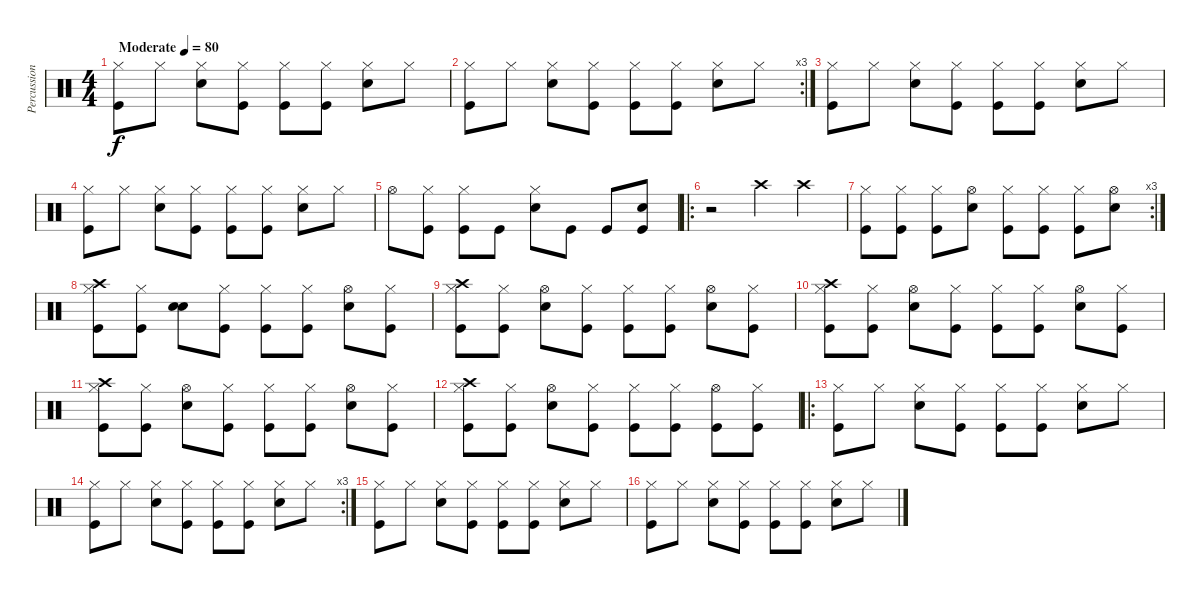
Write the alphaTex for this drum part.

\track ("Percussion" "Percussion") {instrument percussion}
\staff {score}
\articulation defaults
\ts (4 4)
\tempo (80 "Moderate")
\clef neutral
\ks c
("Kick (hit)" "Hi-Hat (closed)").8{dy f} "Hi-Hat (closed)".8 ("Snare (hit) 2" "Hi-Hat (closed)").8 ("Kick (hit)" "Hi-Hat (closed)").8 ("Kick (hit)" "Hi-Hat (closed)").8 ("Kick (hit)" "Hi-Hat (closed)").8 ("Snare (hit) 2" "Hi-Hat (closed)").8 "Hi-Hat (closed)".8 |
\rc 3
("Kick (hit)" "Hi-Hat (closed)").8 "Hi-Hat (closed)".8 ("Snare (hit) 2" "Hi-Hat (closed)").8 ("Kick (hit)" "Hi-Hat (closed)").8 ("Kick (hit)" "Hi-Hat (closed)").8 ("Kick (hit)" "Hi-Hat (closed)").8 ("Snare (hit) 2" "Hi-Hat (closed)").8 "Hi-Hat (closed)".8 |
("Kick (hit)" "Hi-Hat (closed)").8 "Hi-Hat (closed)".8 ("Snare (hit) 2" "Hi-Hat (closed)").8 ("Kick (hit)" "Hi-Hat (closed)").8 ("Kick (hit)" "Hi-Hat (closed)").8 ("Kick (hit)" "Hi-Hat (closed)").8 ("Snare (hit) 2" "Hi-Hat (closed)").8 "Hi-Hat (closed)".8 |
("Kick (hit)" "Hi-Hat (closed)").8 "Hi-Hat (closed)".8 ("Snare (hit) 2" "Hi-Hat (closed)").8 ("Kick (hit)" "Hi-Hat (closed)").8 ("Kick (hit)" "Hi-Hat (closed)").8 ("Kick (hit)" "Hi-Hat (closed)").8 ("Snare (hit) 2" "Hi-Hat (closed)").8 "Hi-Hat (closed)".8 |
"Hi-Hat (open)".8 ("Hi-Hat (closed)" "Kick (hit)").8 ("Hi-Hat (closed)" "Kick (hit)").8 "Kick (hit)".8 ("Hi-Hat (closed)" "Snare (hit) 2").8 "Kick (hit)".8 "Kick (hit)".8 ("Snare (hit) 2" "Kick (hit)").8 |
\ro
r.2 "Crash high (hit)".4 "Crash high (hit)".4 |
\rc 3
("Hi-Hat (closed)" "Kick (hit)").8 ("Hi-Hat (closed)" "Kick (hit)").8 ("Hi-Hat (closed)" "Kick (hit)").8 ("Hi-Hat (open)" "Snare (hit) 2").8 ("Hi-Hat (closed)" "Kick (hit)").8 ("Hi-Hat (closed)" "Kick (hit)").8 ("Hi-Hat (closed)" "Kick (hit)").8 ("Hi-Hat (open)" "Snare (hit) 2").8 |
("Crash high (hit)" "Hi-Hat (closed)" "Kick (hit)").8 ("Hi-Hat (closed)" "Kick (hit)").8 ("Snare (hit)" "Snare (hit) 2").8 ("Hi-Hat (closed)" "Kick (hit)").8 ("Hi-Hat (closed)" "Kick (hit)").8 ("Hi-Hat (closed)" "Kick (hit)").8 ("Hi-Hat (open)" "Snare (hit) 2").8 ("Hi-Hat (closed)" "Kick (hit)").8 |
("Crash high (hit)" "Hi-Hat (closed)" "Kick (hit)").8 ("Hi-Hat (closed)" "Kick (hit)").8 ("Hi-Hat (open)" "Snare (hit) 2").8 ("Hi-Hat (closed)" "Kick (hit)").8 ("Hi-Hat (closed)" "Kick (hit)").8 ("Hi-Hat (closed)" "Kick (hit)").8 ("Hi-Hat (open)" "Snare (hit) 2").8 ("Hi-Hat (closed)" "Kick (hit)").8 |
("Crash high (hit)" "Hi-Hat (closed)" "Kick (hit)").8 ("Hi-Hat (closed)" "Kick (hit)").8 ("Hi-Hat (open)" "Snare (hit) 2").8 ("Hi-Hat (closed)" "Kick (hit)").8 ("Hi-Hat (closed)" "Kick (hit)").8 ("Hi-Hat (closed)" "Kick (hit)").8 ("Hi-Hat (open)" "Snare (hit) 2").8 ("Hi-Hat (closed)" "Kick (hit)").8 |
("Crash high (hit)" "Hi-Hat (closed)" "Kick (hit)").8 ("Hi-Hat (closed)" "Kick (hit)").8 ("Hi-Hat (open)" "Snare (hit) 2").8 ("Hi-Hat (closed)" "Kick (hit)").8 ("Hi-Hat (closed)" "Kick (hit)").8 ("Hi-Hat (closed)" "Kick (hit)").8 ("Hi-Hat (open)" "Snare (hit) 2").8 ("Hi-Hat (closed)" "Kick (hit)").8 |
("Crash high (hit)" "Hi-Hat (closed)" "Kick (hit)").8 ("Hi-Hat (closed)" "Kick (hit)").8 ("Hi-Hat (open)" "Snare (hit) 2").8 ("Hi-Hat (closed)" "Kick (hit)").8 ("Hi-Hat (closed)" "Kick (hit)").8 ("Hi-Hat (closed)" "Kick (hit)").8 ("Hi-Hat (open)" "Kick (hit)").8 ("Hi-Hat (closed)" "Kick (hit)").8 |
\ro
("Kick (hit)" "Hi-Hat (closed)").8 "Hi-Hat (closed)".8 ("Snare (hit) 2" "Hi-Hat (closed)").8 ("Kick (hit)" "Hi-Hat (closed)").8 ("Kick (hit)" "Hi-Hat (closed)").8 ("Kick (hit)" "Hi-Hat (closed)").8 ("Snare (hit) 2" "Hi-Hat (closed)").8 "Hi-Hat (closed)".8 |
\rc 3
("Kick (hit)" "Hi-Hat (closed)").8 "Hi-Hat (closed)".8 ("Snare (hit) 2" "Hi-Hat (closed)").8 ("Kick (hit)" "Hi-Hat (closed)").8 ("Kick (hit)" "Hi-Hat (closed)").8 ("Kick (hit)" "Hi-Hat (closed)").8 ("Snare (hit) 2" "Hi-Hat (closed)").8 "Hi-Hat (closed)".8 |
("Kick (hit)" "Hi-Hat (closed)").8 "Hi-Hat (closed)".8 ("Snare (hit) 2" "Hi-Hat (closed)").8 ("Kick (hit)" "Hi-Hat (closed)").8 ("Kick (hit)" "Hi-Hat (closed)").8 ("Kick (hit)" "Hi-Hat (closed)").8 ("Snare (hit) 2" "Hi-Hat (closed)").8 "Hi-Hat (closed)".8 |
("Kick (hit)" "Hi-Hat (closed)").8 "Hi-Hat (closed)".8 ("Snare (hit) 2" "Hi-Hat (closed)").8 ("Kick (hit)" "Hi-Hat (closed)").8 ("Kick (hit)" "Hi-Hat (closed)").8 ("Kick (hit)" "Hi-Hat (closed)").8 ("Snare (hit) 2" "Hi-Hat (closed)").8 "Hi-Hat (closed)".8
